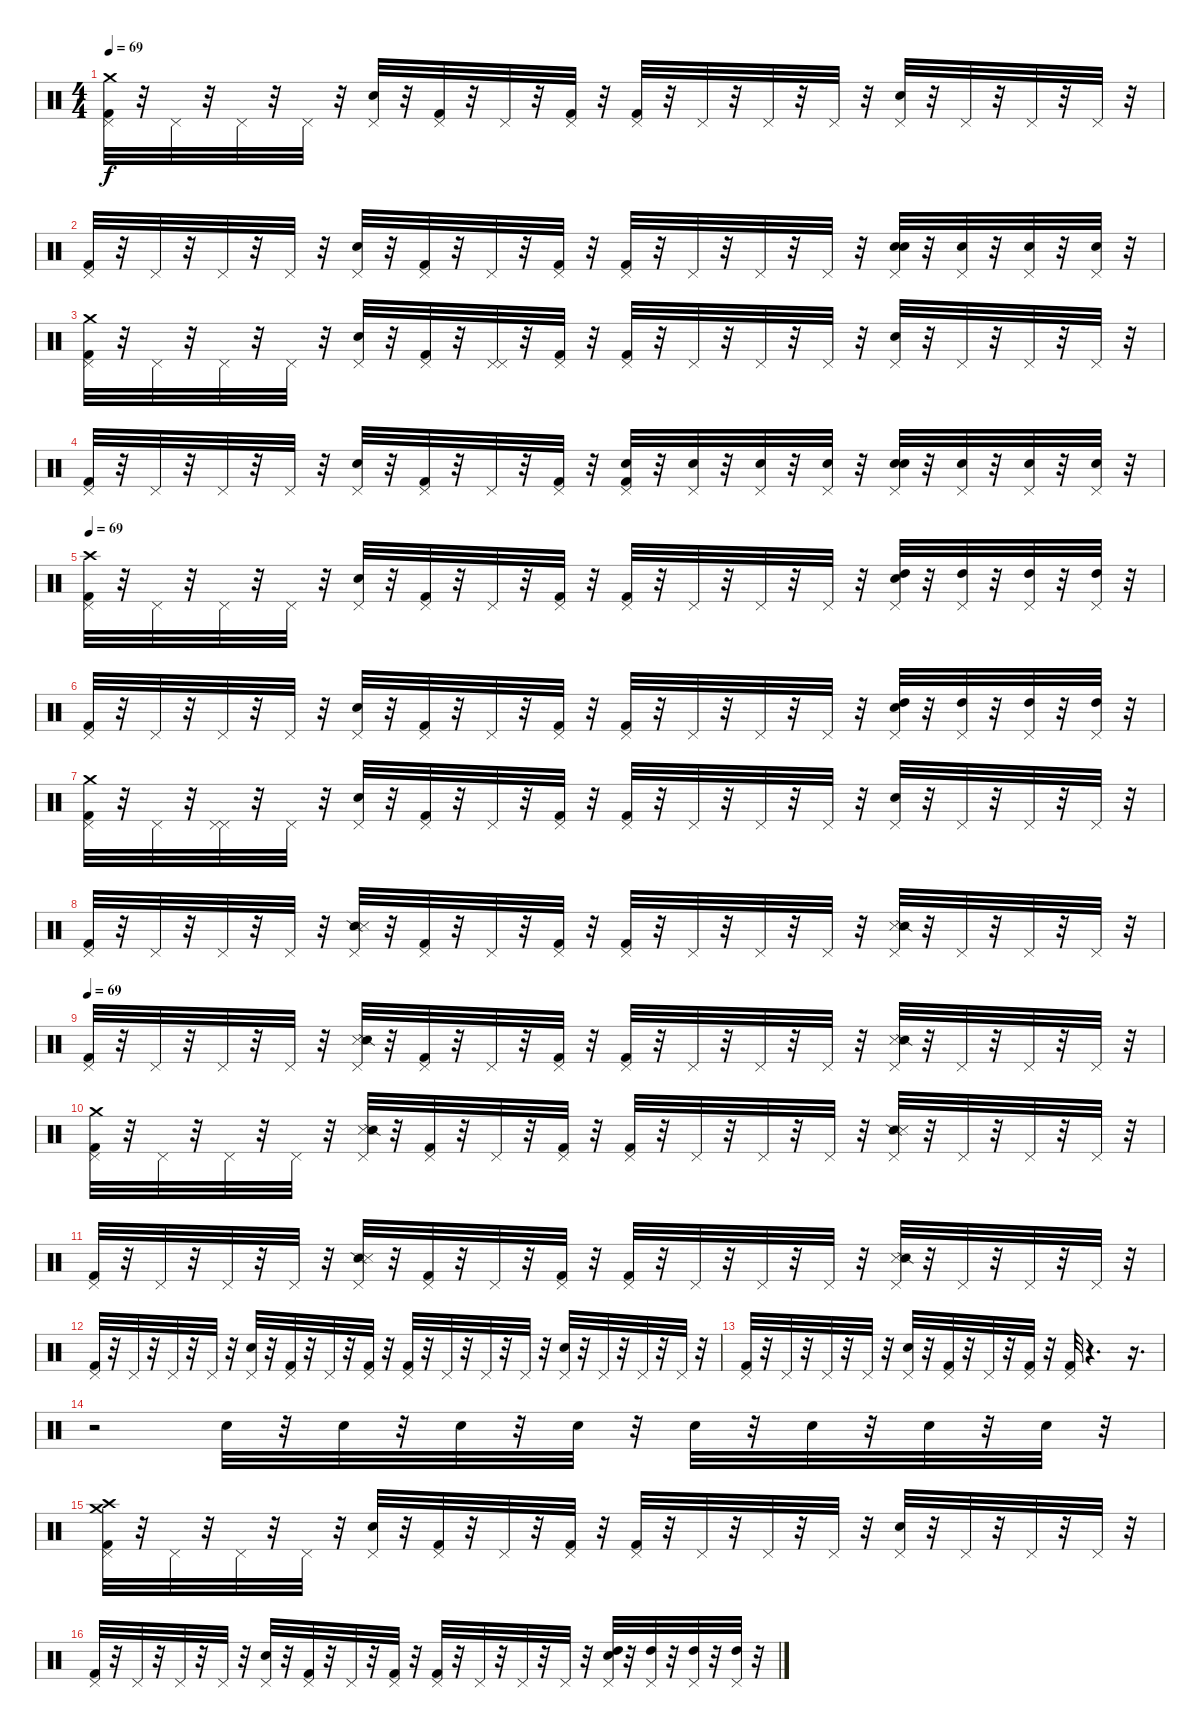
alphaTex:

\track "" {instrument percussion}
\staff {score}
\articulation defaults
\ts (4 4)
\tempo 69
\clef neutral
\ks c
("Pedal Hi-Hat (hit)" "Kick (hit) 2" "Crash medium (hit)").32{dy f} r.32 "Pedal Hi-Hat (hit)".32 r.32 "Pedal Hi-Hat (hit)".32 r.32 "Pedal Hi-Hat (hit)".32 r.32 ("Pedal Hi-Hat (hit)" "Electric Snare (hit)").32 r.32 ("Pedal Hi-Hat (hit)" "Kick (hit) 2").32 r.32 "Pedal Hi-Hat (hit)".32 r.32 ("Pedal Hi-Hat (hit)" "Kick (hit) 2").32 r.32 ("Pedal Hi-Hat (hit)" "Kick (hit) 2").32 r.32 "Pedal Hi-Hat (hit)".32 r.32 "Pedal Hi-Hat (hit)".32 r.32 "Pedal Hi-Hat (hit)".32 r.32 ("Pedal Hi-Hat (hit)" "Electric Snare (hit)").32 r.32 "Pedal Hi-Hat (hit)".32 r.32 "Pedal Hi-Hat (hit)".32 r.32 "Pedal Hi-Hat (hit)".32 r.32 |
("Pedal Hi-Hat (hit)" "Kick (hit) 2").32 r.32 "Pedal Hi-Hat (hit)".32 r.32 "Pedal Hi-Hat (hit)".32 r.32 "Pedal Hi-Hat (hit)".32 r.32 ("Pedal Hi-Hat (hit)" "Electric Snare (hit)").32 r.32 ("Pedal Hi-Hat (hit)" "Kick (hit) 2").32 r.32 "Pedal Hi-Hat (hit)".32 r.32 ("Pedal Hi-Hat (hit)" "Kick (hit) 2").32 r.32 ("Pedal Hi-Hat (hit)" "Kick (hit) 2").32 r.32 "Pedal Hi-Hat (hit)".32 r.32 "Pedal Hi-Hat (hit)".32 r.32 "Pedal Hi-Hat (hit)".32 r.32 ("Electric Snare (hit)" "Pedal Hi-Hat (hit)" "Electric Snare (hit)").32 r.32 ("Electric Snare (hit)" "Pedal Hi-Hat (hit)").32 r.32 ("Electric Snare (hit)" "Pedal Hi-Hat (hit)").32 r.32 ("Electric Snare (hit)" "Pedal Hi-Hat (hit)").32 r.32 |
("Pedal Hi-Hat (hit)" "Crash medium (hit)" "Kick (hit) 2").32 r.32 "Pedal Hi-Hat (hit)".32 r.32 "Pedal Hi-Hat (hit)".32 r.32 "Pedal Hi-Hat (hit)".32 r.32 ("Pedal Hi-Hat (hit)" "Electric Snare (hit)").32 r.32 ("Pedal Hi-Hat (hit)" "Kick (hit) 2").32 r.32 ("Pedal Hi-Hat (hit)" "Pedal Hi-Hat (hit)").32 r.32 ("Pedal Hi-Hat (hit)" "Kick (hit) 2").32 r.32 ("Pedal Hi-Hat (hit)" "Kick (hit) 2").32 r.32 "Pedal Hi-Hat (hit)".32 r.32 "Pedal Hi-Hat (hit)".32 r.32 "Pedal Hi-Hat (hit)".32 r.32 ("Pedal Hi-Hat (hit)" "Electric Snare (hit)").32 r.32 "Pedal Hi-Hat (hit)".32 r.32 "Pedal Hi-Hat (hit)".32 r.32 "Pedal Hi-Hat (hit)".32 r.32 |
("Pedal Hi-Hat (hit)" "Kick (hit) 2").32 r.32 "Pedal Hi-Hat (hit)".32 r.32 "Pedal Hi-Hat (hit)".32 r.32 "Pedal Hi-Hat (hit)".32 r.32 ("Pedal Hi-Hat (hit)" "Electric Snare (hit)").32 r.32 ("Pedal Hi-Hat (hit)" "Kick (hit) 2").32 r.32 "Pedal Hi-Hat (hit)".32 r.32 ("Pedal Hi-Hat (hit)" "Kick (hit) 2").32 r.32 ("Snare (hit) 2" "Pedal Hi-Hat (hit)" "Kick (hit) 2").32 r.32 ("Snare (hit) 2" "Pedal Hi-Hat (hit)").32 r.32 ("Snare (hit) 2" "Pedal Hi-Hat (hit)").32 r.32 ("Snare (hit) 2" "Pedal Hi-Hat (hit)").32 r.32 ("Snare (hit) 2" "Pedal Hi-Hat (hit)" "Electric Snare (hit)").32 r.32 ("Snare (hit) 2" "Pedal Hi-Hat (hit)").32 r.32 ("Snare (hit) 2" "Pedal Hi-Hat (hit)").32 r.32 ("Snare (hit) 2" "Pedal Hi-Hat (hit)").32 r.32 |
\tempo 69
("Pedal Hi-Hat (hit)" "Kick (hit) 2" "Crash high (hit)").32 r.32 "Pedal Hi-Hat (hit)".32 r.32 "Pedal Hi-Hat (hit)".32 r.32 "Pedal Hi-Hat (hit)".32 r.32 ("Pedal Hi-Hat (hit)" "Electric Snare (hit)").32 r.32 ("Pedal Hi-Hat (hit)" "Kick (hit) 2").32 r.32 "Pedal Hi-Hat (hit)".32 r.32 ("Pedal Hi-Hat (hit)" "Kick (hit) 2").32 r.32 ("Pedal Hi-Hat (hit)" "Kick (hit) 2").32 r.32 "Pedal Hi-Hat (hit)".32 r.32 "Pedal Hi-Hat (hit)".32 r.32 "Pedal Hi-Hat (hit)".32 r.32 ("Electric Snare (hit)" "High Tom (hit)" "Pedal Hi-Hat (hit)").32 r.32 ("High Tom (hit)" "Pedal Hi-Hat (hit)").32 r.32 ("High Tom (hit)" "Pedal Hi-Hat (hit)").32 r.32 ("High Tom (hit)" "Pedal Hi-Hat (hit)").32 r.32 |
("Pedal Hi-Hat (hit)" "Kick (hit) 2").32 r.32 "Pedal Hi-Hat (hit)".32 r.32 "Pedal Hi-Hat (hit)".32 r.32 "Pedal Hi-Hat (hit)".32 r.32 ("Pedal Hi-Hat (hit)" "Electric Snare (hit)").32 r.32 ("Pedal Hi-Hat (hit)" "Kick (hit) 2").32 r.32 "Pedal Hi-Hat (hit)".32 r.32 ("Pedal Hi-Hat (hit)" "Kick (hit) 2").32 r.32 ("Pedal Hi-Hat (hit)" "Kick (hit) 2").32 r.32 "Pedal Hi-Hat (hit)".32 r.32 "Pedal Hi-Hat (hit)".32 r.32 "Pedal Hi-Hat (hit)".32 r.32 ("Electric Snare (hit)" "Pedal Hi-Hat (hit)" "High Tom (hit)").32 r.32 ("High Tom (hit)" "Pedal Hi-Hat (hit)").32 r.32 ("High Tom (hit)" "Pedal Hi-Hat (hit)").32 r.32 ("High Tom (hit)" "Pedal Hi-Hat (hit)").32 r.32 |
("Pedal Hi-Hat (hit)" "Crash medium (hit)" "Kick (hit) 2").32 r.32 "Pedal Hi-Hat (hit)".32 r.32 ("Pedal Hi-Hat (hit)" "Pedal Hi-Hat (hit)").32 r.32 "Pedal Hi-Hat (hit)".32 r.32 ("Pedal Hi-Hat (hit)" "Electric Snare (hit)").32 r.32 ("Pedal Hi-Hat (hit)" "Kick (hit) 2").32 r.32 "Pedal Hi-Hat (hit)".32 r.32 ("Pedal Hi-Hat (hit)" "Kick (hit) 2").32 r.32 ("Pedal Hi-Hat (hit)" "Kick (hit) 2").32 r.32 "Pedal Hi-Hat (hit)".32 r.32 "Pedal Hi-Hat (hit)".32 r.32 "Pedal Hi-Hat (hit)".32 r.32 ("Electric Snare (hit)" "Pedal Hi-Hat (hit)").32 r.32 "Pedal Hi-Hat (hit)".32 r.32 "Pedal Hi-Hat (hit)".32 r.32 "Pedal Hi-Hat (hit)".32 r.32 |
("Pedal Hi-Hat (hit)" "Kick (hit) 2").32 r.32 "Pedal Hi-Hat (hit)".32 r.32 "Pedal Hi-Hat (hit)".32 r.32 "Pedal Hi-Hat (hit)".32 r.32 ("Snare (side stick) 2" "Snare (side stick) 3" "Pedal Hi-Hat (hit)").32 r.32 ("Pedal Hi-Hat (hit)" "Kick (hit) 2").32 r.32 "Pedal Hi-Hat (hit)".32 r.32 ("Pedal Hi-Hat (hit)" "Kick (hit) 2").32 r.32 ("Pedal Hi-Hat (hit)" "Kick (hit) 2").32 r.32 "Pedal Hi-Hat (hit)".32 r.32 "Pedal Hi-Hat (hit)".32 r.32 "Pedal Hi-Hat (hit)".32 r.32 ("Snare (side stick) 3" "Snare (side stick) 2" "Pedal Hi-Hat (hit)").32 r.32 "Pedal Hi-Hat (hit)".32 r.32 "Pedal Hi-Hat (hit)".32 r.32 "Pedal Hi-Hat (hit)".32 r.32 |
\tempo 69
("Pedal Hi-Hat (hit)" "Kick (hit) 2").32 r.32 "Pedal Hi-Hat (hit)".32 r.32 "Pedal Hi-Hat (hit)".32 r.32 "Pedal Hi-Hat (hit)".32 r.32 ("Pedal Hi-Hat (hit)" "Snare (side stick) 3" "Snare (side stick) 2").32 r.32 ("Pedal Hi-Hat (hit)" "Kick (hit) 2").32 r.32 "Pedal Hi-Hat (hit)".32 r.32 ("Pedal Hi-Hat (hit)" "Kick (hit) 2").32 r.32 ("Pedal Hi-Hat (hit)" "Kick (hit) 2").32 r.32 "Pedal Hi-Hat (hit)".32 r.32 "Pedal Hi-Hat (hit)".32 r.32 "Pedal Hi-Hat (hit)".32 r.32 ("Pedal Hi-Hat (hit)" "Snare (side stick) 3" "Snare (side stick) 2").32 r.32 "Pedal Hi-Hat (hit)".32 r.32 "Pedal Hi-Hat (hit)".32 r.32 "Pedal Hi-Hat (hit)".32 r.32 |
("Crash medium (hit)" "Pedal Hi-Hat (hit)" "Kick (hit) 2").32 r.32 "Pedal Hi-Hat (hit)".32 r.32 "Pedal Hi-Hat (hit)".32 r.32 "Pedal Hi-Hat (hit)".32 r.32 ("Pedal Hi-Hat (hit)" "Snare (side stick) 3" "Snare (side stick) 2").32 r.32 ("Pedal Hi-Hat (hit)" "Kick (hit) 2").32 r.32 "Pedal Hi-Hat (hit)".32 r.32 ("Pedal Hi-Hat (hit)" "Kick (hit) 2").32 r.32 ("Pedal Hi-Hat (hit)" "Kick (hit) 2").32 r.32 "Pedal Hi-Hat (hit)".32 r.32 "Pedal Hi-Hat (hit)".32 r.32 "Pedal Hi-Hat (hit)".32 r.32 ("Pedal Hi-Hat (hit)" "Snare (side stick) 2" "Snare (side stick) 3").32 r.32 "Pedal Hi-Hat (hit)".32 r.32 "Pedal Hi-Hat (hit)".32 r.32 "Pedal Hi-Hat (hit)".32 r.32 |
("Pedal Hi-Hat (hit)" "Kick (hit) 2").32 r.32 "Pedal Hi-Hat (hit)".32 r.32 "Pedal Hi-Hat (hit)".32 r.32 "Pedal Hi-Hat (hit)".32 r.32 ("Snare (side stick) 2" "Snare (side stick) 3" "Pedal Hi-Hat (hit)").32 r.32 ("Pedal Hi-Hat (hit)" "Kick (hit) 2").32 r.32 "Pedal Hi-Hat (hit)".32 r.32 ("Pedal Hi-Hat (hit)" "Kick (hit) 2").32 r.32 ("Pedal Hi-Hat (hit)" "Kick (hit) 2").32 r.32 "Pedal Hi-Hat (hit)".32 r.32 "Pedal Hi-Hat (hit)".32 r.32 "Pedal Hi-Hat (hit)".32 r.32 ("Snare (side stick) 3" "Pedal Hi-Hat (hit)" "Snare (side stick) 2").32 r.32 "Pedal Hi-Hat (hit)".32 r.32 "Pedal Hi-Hat (hit)".32 r.32 "Pedal Hi-Hat (hit)".32 r.32 |
("Pedal Hi-Hat (hit)" "Kick (hit) 2").32 r.32 "Pedal Hi-Hat (hit)".32 r.32 "Pedal Hi-Hat (hit)".32 r.32 "Pedal Hi-Hat (hit)".32 r.32 ("Pedal Hi-Hat (hit)" "Electric Snare (hit)").32 r.32 ("Pedal Hi-Hat (hit)" "Kick (hit) 2").32 r.32 "Pedal Hi-Hat (hit)".32 r.32 ("Pedal Hi-Hat (hit)" "Kick (hit) 2").32 r.32 ("Pedal Hi-Hat (hit)" "Kick (hit) 2").32 r.32 "Pedal Hi-Hat (hit)".32 r.32 "Pedal Hi-Hat (hit)".32 r.32 "Pedal Hi-Hat (hit)".32 r.32 ("Pedal Hi-Hat (hit)" "Electric Snare (hit)").32 r.32 "Pedal Hi-Hat (hit)".32 r.32 "Pedal Hi-Hat (hit)".32 r.32 "Pedal Hi-Hat (hit)".32 r.32 |
("Pedal Hi-Hat (hit)" "Kick (hit) 2").32 r.32 "Pedal Hi-Hat (hit)".32 r.32 "Pedal Hi-Hat (hit)".32 r.32 "Pedal Hi-Hat (hit)".32 r.32 ("Pedal Hi-Hat (hit)" "Electric Snare (hit)").32 r.32 ("Pedal Hi-Hat (hit)" "Kick (hit) 2").32 r.32 "Pedal Hi-Hat (hit)".32 r.32 ("Pedal Hi-Hat (hit)" "Kick (hit) 2").32 r.32 ("Pedal Hi-Hat (hit)" "Kick (hit) 2").32 r.4{d} r.16{d} |
r.2 "Snare (hit) 2".32 r.32 "Snare (hit) 2".32 r.32 "Snare (hit) 2".32 r.32 "Snare (hit) 2".32 r.32 "Snare (hit) 2".32 r.32 "Snare (hit) 2".32 r.32 "Snare (hit) 2".32 r.32 "Snare (hit) 2".32 r.32 |
("Crash medium (hit)" "Pedal Hi-Hat (hit)" "Kick (hit) 2" "Crash high (hit)").32 r.32 "Pedal Hi-Hat (hit)".32 r.32 "Pedal Hi-Hat (hit)".32 r.32 "Pedal Hi-Hat (hit)".32 r.32 ("Pedal Hi-Hat (hit)" "Electric Snare (hit)").32 r.32 ("Pedal Hi-Hat (hit)" "Kick (hit) 2").32 r.32 "Pedal Hi-Hat (hit)".32 r.32 ("Pedal Hi-Hat (hit)" "Kick (hit) 2").32 r.32 ("Pedal Hi-Hat (hit)" "Kick (hit) 2").32 r.32 "Pedal Hi-Hat (hit)".32 r.32 "Pedal Hi-Hat (hit)".32 r.32 "Pedal Hi-Hat (hit)".32 r.32 ("Electric Snare (hit)" "Pedal Hi-Hat (hit)").32 r.32 "Pedal Hi-Hat (hit)".32 r.32 "Pedal Hi-Hat (hit)".32 r.32 "Pedal Hi-Hat (hit)".32 r.32 |
("Pedal Hi-Hat (hit)" "Kick (hit) 2").32 r.32 "Pedal Hi-Hat (hit)".32 r.32 "Pedal Hi-Hat (hit)".32 r.32 "Pedal Hi-Hat (hit)".32 r.32 ("Pedal Hi-Hat (hit)" "Electric Snare (hit)").32 r.32 ("Pedal Hi-Hat (hit)" "Kick (hit) 2").32 r.32 "Pedal Hi-Hat (hit)".32 r.32 ("Pedal Hi-Hat (hit)" "Kick (hit) 2").32 r.32 ("Pedal Hi-Hat (hit)" "Kick (hit) 2").32 r.32 "Pedal Hi-Hat (hit)".32 r.32 "Pedal Hi-Hat (hit)".32 r.32 "Pedal Hi-Hat (hit)".32 r.32 ("High Tom (hit)" "Pedal Hi-Hat (hit)" "Electric Snare (hit)").32 r.32 ("High Tom (hit)" "Pedal Hi-Hat (hit)").32 r.32 ("High Tom (hit)" "Pedal Hi-Hat (hit)").32 r.32 ("High Tom (hit)" "Pedal Hi-Hat (hit)").32 r.32
